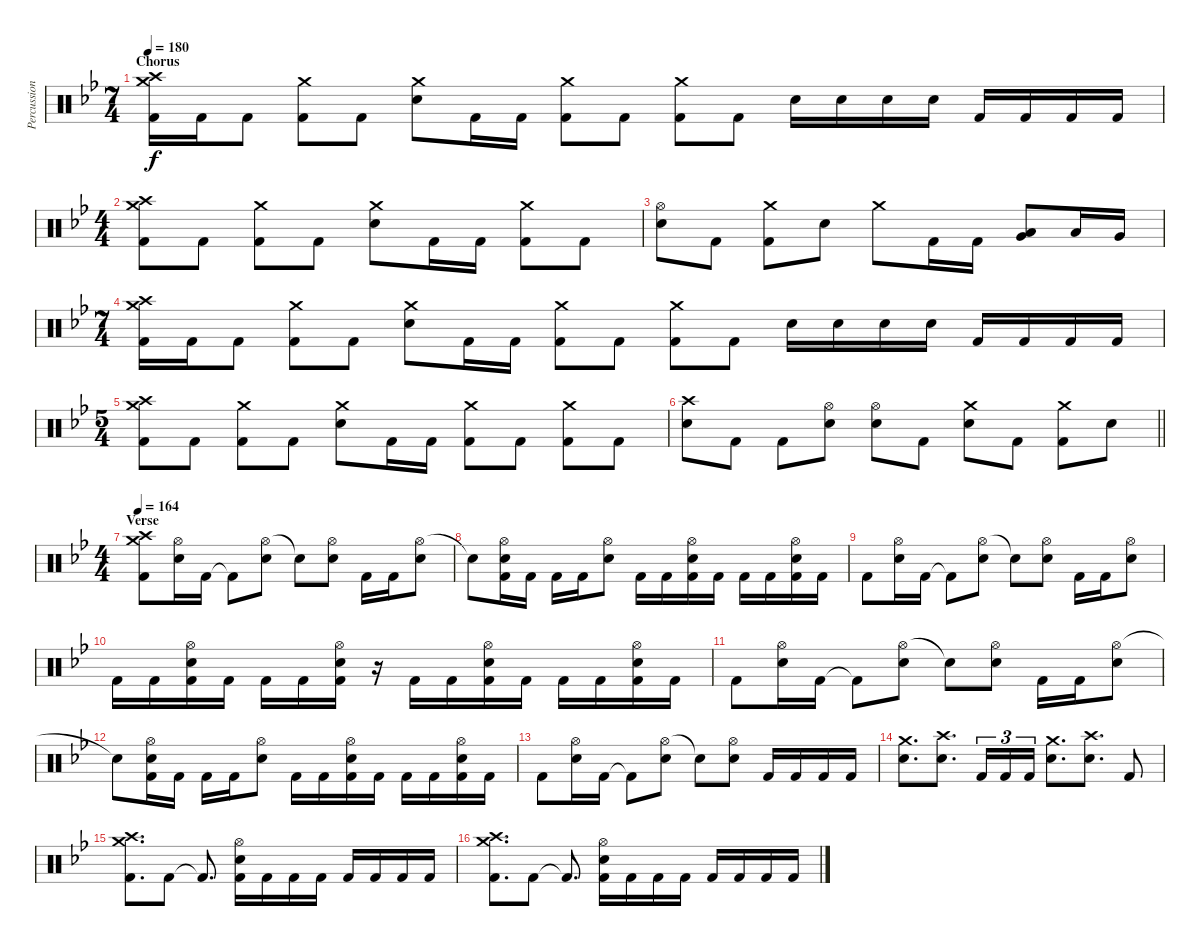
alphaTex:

\track ("Percussion" "Percussion") {instrument percussion}
\staff {score}
\articulation defaults
\ts (7 4)
\section ("" "Chorus")
\tempo 180
\clef neutral
\ks bb
("Crash medium (hit)" "Crash high (hit)" "Kick (hit) 2").16{dy f} "Kick (hit) 2".16 "Kick (hit) 2".8 ("Crash medium (hit)" "Kick (hit) 2").8 "Kick (hit) 2".8 ("Crash medium (hit)" "Electric Snare (hit)").8 "Kick (hit) 2".16 "Kick (hit) 2".16 ("Crash medium (hit)" "Kick (hit) 2").8 "Kick (hit) 2".8 ("Crash medium (hit)" "Kick (hit) 2").8 "Kick (hit) 2".8 "Electric Snare (hit)".16 "Electric Snare (hit)".16 "Electric Snare (hit)".16 "Electric Snare (hit)".16 "Kick (hit) 2".16 "Kick (hit) 2".16 "Kick (hit) 2".16 "Kick (hit) 2".16 |
\ts (4 4)
("Crash medium (hit)" "Crash high (hit)" "Kick (hit) 2").8 "Kick (hit) 2".8 ("Crash medium (hit)" "Kick (hit) 2").8 "Kick (hit) 2".8 ("Crash medium (hit)" "Electric Snare (hit)").8 "Kick (hit) 2".16 "Kick (hit) 2".16 ("Crash medium (hit)" "Kick (hit) 2").8 "Kick (hit) 2".8 |
("Hi-Hat (open)" "Electric Snare (hit)").8 "Kick (hit) 2".8 ("Crash medium (hit)" "Kick (hit) 2").8 "Electric Snare (hit)".8 "Crash medium (hit)".8 "Kick (hit) 2".16 "Kick (hit) 2".16 ("Very Low Tom (hit)" "Low Floor Tom (hit)").8 "Low Tom (hit)".16 "Very Low Tom (hit)".16 |
\ts (7 4)
("Crash medium (hit)" "Crash high (hit)" "Kick (hit) 2").16 "Kick (hit) 2".16 "Kick (hit) 2".8 ("Crash medium (hit)" "Kick (hit) 2").8 "Kick (hit) 2".8 ("Crash medium (hit)" "Electric Snare (hit)").8 "Kick (hit) 2".16 "Kick (hit) 2".16 ("Crash medium (hit)" "Kick (hit) 2").8 "Kick (hit) 2".8 ("Crash medium (hit)" "Kick (hit) 2").8 "Kick (hit) 2".8 "Electric Snare (hit)".16 "Electric Snare (hit)".16 "Electric Snare (hit)".16 "Electric Snare (hit)".16 "Kick (hit) 2".16 "Kick (hit) 2".16 "Kick (hit) 2".16 "Kick (hit) 2".16 |
\ts (5 4)
("Crash medium (hit)" "Crash high (hit)" "Kick (hit) 2").8 "Kick (hit) 2".8 ("Crash medium (hit)" "Kick (hit) 2").8 "Kick (hit) 2".8 ("Crash medium (hit)" "Electric Snare (hit)").8 "Kick (hit) 2".16 "Kick (hit) 2".16 ("Crash medium (hit)" "Kick (hit) 2").8 "Kick (hit) 2".8 ("Crash medium (hit)" "Kick (hit) 2").8 "Kick (hit) 2".8 |
\barLineRight lightlight
("Crash high (hit)" "Electric Snare (hit)").8 "Kick (hit) 2".8 "Kick (hit) 2".8 ("Hi-Hat (open)" "Electric Snare (hit)").8 ("Hi-Hat (open)" "Electric Snare (hit)").8 "Kick (hit) 2".8 ("Crash medium (hit)" "Electric Snare (hit)").8 "Kick (hit) 2".8 ("Crash medium (hit)" "Kick (hit) 2").8 "Electric Snare (hit)".8 |
\ts (4 4)
\section ("" "Verse")
\tempo 164
("Crash medium (hit)" "Crash high (hit)" "Kick (hit) 2").8 ("Hi-Hat (open)" "Electric Snare (hit)").16 "Kick (hit) 2".16 "Kick (hit) 2"{t}.8 ("Hi-Hat (open)" "Electric Snare (hit)").8 "Electric Snare (hit)"{t}.8 ("Hi-Hat (open)" "Electric Snare (hit)").8 "Kick (hit) 2".16 "Kick (hit) 2".16 ("Hi-Hat (open)" "Electric Snare (hit)").8 |
"Electric Snare (hit)"{t}.8 ("Hi-Hat (open)" "Electric Snare (hit)" "Kick (hit) 2").16 "Kick (hit) 2".16 "Kick (hit) 2".16 "Kick (hit) 2".16 ("Hi-Hat (open)" "Electric Snare (hit)").8 "Kick (hit) 2".16 "Kick (hit) 2".16 ("Hi-Hat (open)" "Electric Snare (hit)" "Kick (hit) 2").16 "Kick (hit) 2".16 "Kick (hit) 2".16 "Kick (hit) 2".16 ("Hi-Hat (open)" "Electric Snare (hit)" "Kick (hit) 2").16 "Kick (hit) 2".16 |
"Kick (hit) 2".8 ("Hi-Hat (open)" "Electric Snare (hit)").16 "Kick (hit) 2".16 "Kick (hit) 2"{t}.8 ("Hi-Hat (open)" "Electric Snare (hit)").8 "Electric Snare (hit)"{t}.8 ("Hi-Hat (open)" "Electric Snare (hit)").8 "Kick (hit) 2".16 "Kick (hit) 2".16 ("Hi-Hat (open)" "Electric Snare (hit)").8 |
"Kick (hit) 2".16 "Kick (hit) 2".16 ("Hi-Hat (open)" "Electric Snare (hit)" "Kick (hit) 2").16 "Kick (hit) 2".16 "Kick (hit) 2".16 "Kick (hit) 2".16 ("Hi-Hat (open)" "Electric Snare (hit)" "Kick (hit) 2").16 r.16 "Kick (hit) 2".16 "Kick (hit) 2".16 ("Hi-Hat (open)" "Electric Snare (hit)" "Kick (hit) 2").16 "Kick (hit) 2".16 "Kick (hit) 2".16 "Kick (hit) 2".16 ("Hi-Hat (open)" "Electric Snare (hit)" "Kick (hit) 2").16 "Kick (hit) 2".16 |
"Kick (hit) 2".8 ("Hi-Hat (open)" "Electric Snare (hit)").16 "Kick (hit) 2".16 "Kick (hit) 2"{t}.8 ("Hi-Hat (open)" "Electric Snare (hit)").8 "Electric Snare (hit)"{t}.8 ("Hi-Hat (open)" "Electric Snare (hit)").8 "Kick (hit) 2".16 "Kick (hit) 2".16 ("Hi-Hat (open)" "Electric Snare (hit)").8 |
"Electric Snare (hit)"{t}.8 ("Hi-Hat (open)" "Electric Snare (hit)" "Kick (hit) 2").16 "Kick (hit) 2".16 "Kick (hit) 2".16 "Kick (hit) 2".16 ("Hi-Hat (open)" "Electric Snare (hit)").8 "Kick (hit) 2".16 "Kick (hit) 2".16 ("Hi-Hat (open)" "Electric Snare (hit)" "Kick (hit) 2").16 "Kick (hit) 2".16 "Kick (hit) 2".16 "Kick (hit) 2".16 ("Hi-Hat (open)" "Electric Snare (hit)" "Kick (hit) 2").16 "Kick (hit) 2".16 |
"Kick (hit) 2".8 ("Hi-Hat (open)" "Electric Snare (hit)").16 "Kick (hit) 2".16 "Kick (hit) 2"{t}.8 ("Hi-Hat (open)" "Electric Snare (hit)").8 "Electric Snare (hit)"{t}.8 ("Hi-Hat (open)" "Electric Snare (hit)").8 "Kick (hit) 2".16 "Kick (hit) 2".16 "Kick (hit) 2".16 "Kick (hit) 2".16 |
("Crash medium (hit)" "Electric Snare (hit)").8{d} ("Crash high (hit)" "Electric Snare (hit)").8{d} "Kick (hit) 2".16{tu (3 2)} "Kick (hit) 2".16{tu (3 2)} "Kick (hit) 2".16{tu (3 2)} ("Crash medium (hit)" "Electric Snare (hit)").8{d} ("Crash high (hit)" "Electric Snare (hit)").8{d} "Kick (hit) 2".8 |
("Crash medium (hit)" "Crash high (hit)" "Kick (hit) 2").8{d} "Kick (hit) 2".8 "Kick (hit) 2"{t}.8{d} ("Hi-Hat (open)" "Electric Snare (hit)" "Kick (hit) 2").16 "Kick (hit) 2".16 "Kick (hit) 2".16 "Kick (hit) 2".16 "Kick (hit) 2".16 "Kick (hit) 2".16 "Kick (hit) 2".16 "Kick (hit) 2".16 |
("Crash medium (hit)" "Crash high (hit)" "Kick (hit) 2").8{d} "Kick (hit) 2".8 "Kick (hit) 2"{t}.8{d} ("Hi-Hat (open)" "Electric Snare (hit)" "Kick (hit) 2").16 "Kick (hit) 2".16 "Kick (hit) 2".16 "Kick (hit) 2".16 "Kick (hit) 2".16 "Kick (hit) 2".16 "Kick (hit) 2".16 "Kick (hit) 2".16
